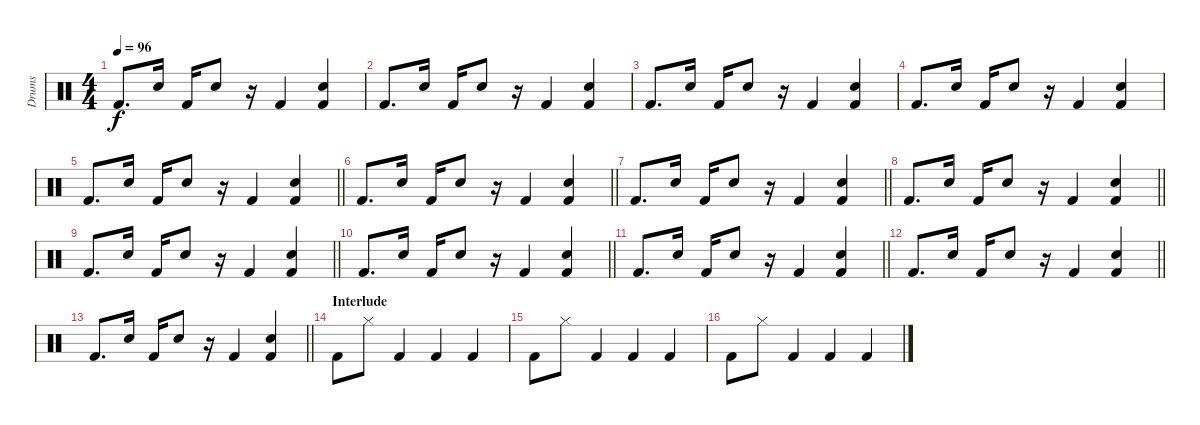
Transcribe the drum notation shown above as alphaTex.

\track ("Drums" "Drums") {instrument percussion}
\staff {score}
\articulation defaults
\ts (4 4)
\tempo 96
\clef neutral
\ks c "Kick (hit) 2".8{d dy f} "Snare (hit) 2".16 "Kick (hit) 2".16 "Snare (hit) 2".8
r.16 "Kick (hit) 2".4 ("Snare (hit) 2" "Kick (hit) 2").4 |
"Kick (hit) 2".8{d} "Snare (hit) 2".16 "Kick (hit) 2".16 "Snare (hit) 2".8 r.16 "Kick (hit) 2".4 ("Snare (hit) 2" "Kick (hit) 2").4 |
"Kick (hit) 2".8{d} "Snare (hit) 2".16 "Kick (hit) 2".16 "Snare (hit) 2".8 r.16 "Kick (hit) 2".4 ("Snare (hit) 2" "Kick (hit) 2").4 |
"Kick (hit) 2".8{d} "Snare (hit) 2".16 "Kick (hit) 2".16 "Snare (hit) 2".8 r.16 "Kick (hit) 2".4 ("Snare (hit) 2" "Kick (hit) 2").4 |
\barLineRight lightlight "Kick (hit) 2".8{d} "Snare (hit) 2".16 "Kick (hit) 2".16 "Snare (hit) 2".8
r.16 "Kick (hit) 2".4 ("Snare (hit) 2" "Kick (hit) 2").4 |
\barLineRight lightlight "Kick (hit) 2".8{d} "Snare (hit) 2".16 "Kick (hit) 2".16 "Snare (hit) 2".8
r.16 "Kick (hit) 2".4 ("Snare (hit) 2" "Kick (hit) 2").4 |
\barLineRight lightlight "Kick (hit) 2".8{d} "Snare (hit) 2".16 "Kick (hit) 2".16 "Snare (hit) 2".8
r.16 "Kick (hit) 2".4 ("Snare (hit) 2" "Kick (hit) 2").4 |
\barLineRight lightlight "Kick (hit) 2".8{d} "Snare (hit) 2".16 "Kick (hit) 2".16 "Snare (hit) 2".8
r.16 "Kick (hit) 2".4 ("Snare (hit) 2" "Kick (hit) 2").4 |
\barLineRight lightlight "Kick (hit) 2".8{d} "Snare (hit) 2".16 "Kick (hit) 2".16 "Snare (hit) 2".8
r.16 "Kick (hit) 2".4 ("Snare (hit) 2" "Kick (hit) 2").4 |
\barLineRight lightlight "Kick (hit) 2".8{d} "Snare (hit) 2".16 "Kick (hit) 2".16 "Snare (hit) 2".8
r.16 "Kick (hit) 2".4 ("Snare (hit) 2" "Kick (hit) 2").4 |
\barLineRight lightlight "Kick (hit) 2".8{d} "Snare (hit) 2".16 "Kick (hit) 2".16 "Snare (hit) 2".8
r.16 "Kick (hit) 2".4 ("Snare (hit) 2" "Kick (hit) 2").4 |
\barLineRight lightlight "Kick (hit) 2".8{d} "Snare (hit) 2".16 "Kick (hit) 2".16 "Snare (hit) 2".8
r.16 "Kick (hit) 2".4 ("Snare (hit) 2" "Kick (hit) 2").4 |
\barLineRight lightlight "Kick (hit) 2".8{d} "Snare (hit) 2".16 "Kick (hit) 2".16 "Snare (hit) 2".8
r.16 "Kick (hit) 2".4 ("Snare (hit) 2" "Kick (hit) 2").4 |
\section ("" "Interlude")
"Kick (hit) 2".8 "Hi-Hat (closed)".8 "Kick (hit) 2".4 "Kick (hit) 2".4 "Kick (hit) 2".4 |
"Kick (hit) 2".8 "Hi-Hat (closed)".8 "Kick (hit) 2".4 "Kick (hit) 2".4 "Kick (hit) 2".4 |
"Kick (hit) 2".8 "Hi-Hat (closed)".8 "Kick (hit) 2".4 "Kick (hit) 2".4 "Kick (hit) 2".4
